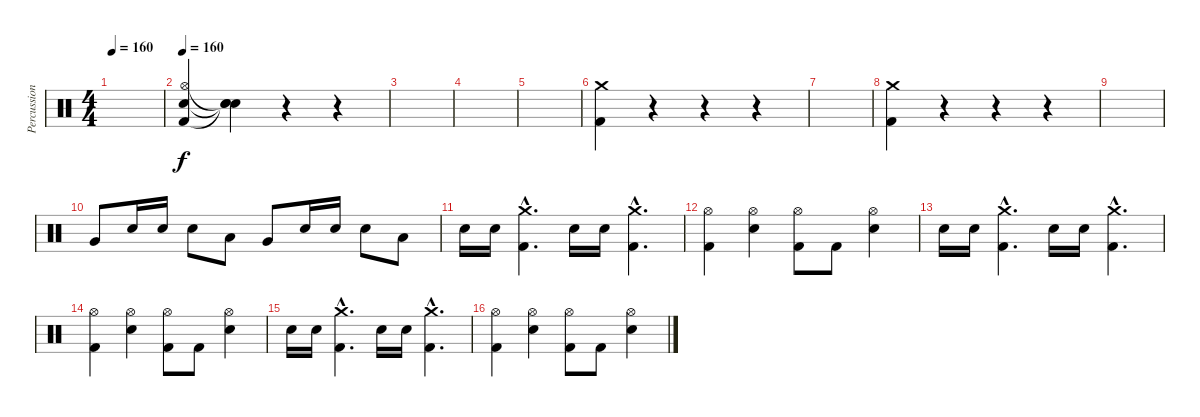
\track ("Percussion" "Percussion") {instrument percussion}
\staff {score}
\articulation defaults
\ts (4 4)
\tempo 160
\clef neutral
\ks c
|
\tempo 160
("Kick (hit) 2" "Hi-Hat (open)" "Snare (hit) 2").4 ("Snare (hit)"{t} "Snare (hit)"{t} "Snare (hit)"{t}).4 r.4 r.4 |
|
|
|
("Crash medium (hit)" "Kick (hit) 2").4 r.4 r.4 r.4 |
|
("Crash medium (hit)" "Kick (hit) 2").4 r.4 r.4 r.4 |
|
"Very Low Tom (hit)".8 "Snare (hit) 2".16 "Snare (hit) 2".16 "Snare (hit) 2".8 "Low Floor Tom (hit)".8 "Very Low Tom (hit)".8 "Snare (hit) 2".16 "Snare (hit) 2".16 "Snare (hit) 2".8 "Low Floor Tom (hit)".8 |
"Snare (hit) 2".16 "Snare (hit) 2".16 ("Crash medium (hit)"{hac} "Kick (hit) 2"{hac}).4{d} "Snare (hit) 2".16 "Snare (hit) 2".16 ("Crash medium (hit)"{hac} "Kick (hit) 2"{hac}).4{d} |
("Hi-Hat (open)" "Kick (hit) 2").4 ("Hi-Hat (open)" "Snare (hit) 2").4 ("Hi-Hat (open)" "Kick (hit) 2").8 "Kick (hit) 2".8 ("Hi-Hat (open)" "Snare (hit) 2").4 |
"Snare (hit) 2".16 "Snare (hit) 2".16 ("Crash medium (hit)"{hac} "Kick (hit) 2"{hac}).4{d} "Snare (hit) 2".16 "Snare (hit) 2".16 ("Crash medium (hit)"{hac} "Kick (hit) 2"{hac}).4{d} |
("Hi-Hat (open)" "Kick (hit) 2").4 ("Hi-Hat (open)" "Snare (hit) 2").4 ("Hi-Hat (open)" "Kick (hit) 2").8 "Kick (hit) 2".8 ("Hi-Hat (open)" "Snare (hit) 2").4 |
"Snare (hit) 2".16 "Snare (hit) 2".16 ("Crash medium (hit)"{hac} "Kick (hit) 2"{hac}).4{d} "Snare (hit) 2".16 "Snare (hit) 2".16 ("Crash medium (hit)"{hac} "Kick (hit) 2"{hac}).4{d} |
("Hi-Hat (open)" "Kick (hit) 2").4 ("Hi-Hat (open)" "Snare (hit) 2").4 ("Hi-Hat (open)" "Kick (hit) 2").8 "Kick (hit) 2".8 ("Hi-Hat (open)" "Snare (hit) 2").4
